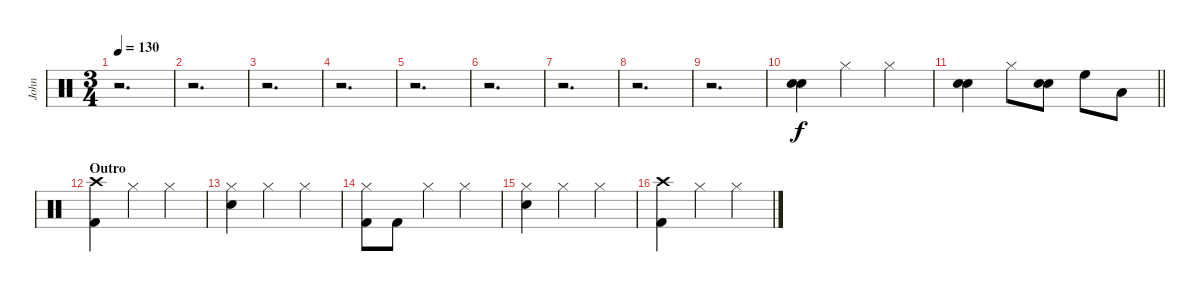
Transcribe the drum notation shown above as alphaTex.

\track ("John" "John") {instrument percussion}
\staff {score}
\articulation defaults
\ts (3 4)
\tempo 130
\clef neutral
\ks c
r.2{d dy f} |
r.2{d} |
r.2{d} |
r.2{d} |
r.2{d} |
r.2{d} |
r.2{d} |
r.2{d} |
r.2{d} |
("Snare (hit) 2" "Snare (hit) 2").4 "Hi-Hat (closed)".4 "Hi-Hat (closed)".4 |
\barLineRight lightlight
("Snare (hit) 2" "Snare (hit) 2").4 "Hi-Hat (closed)".8 ("Snare (hit) 2" "Snare (hit) 2").8 "High Floor Tom (hit)".8 "Low Tom (hit)".8 |
\section ("" "Outro")
("Crash high (hit)" "Kick (hit) 2").4 "Hi-Hat (closed)".4 "Hi-Hat (closed)".4 |
("Hi-Hat (closed)" "Snare (hit) 2").4 "Hi-Hat (closed)".4 "Hi-Hat (closed)".4 |
("Hi-Hat (closed)" "Kick (hit) 2").8 "Kick (hit) 2".8 "Hi-Hat (closed)".4 "Hi-Hat (closed)".4 |
("Hi-Hat (closed)" "Snare (hit) 2").4 "Hi-Hat (closed)".4 "Hi-Hat (closed)".4 |
("Crash high (hit)" "Kick (hit) 2").4 "Hi-Hat (closed)".4 "Hi-Hat (closed)".4
